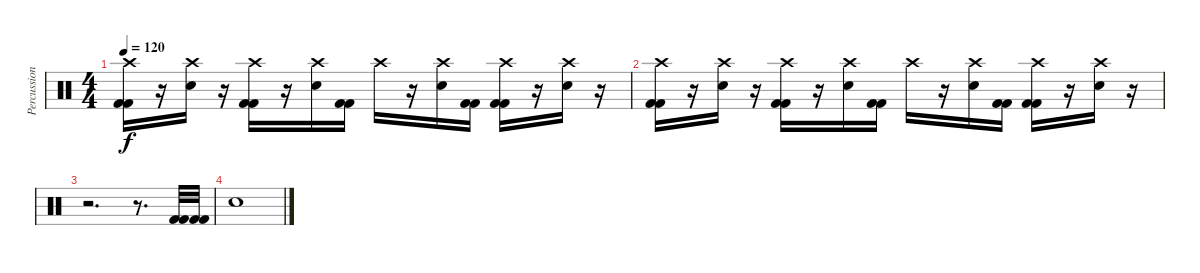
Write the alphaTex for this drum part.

\track ("Percussions" "Percussion") {instrument percussion}
\staff {score}
\articulation defaults
\ts (4 4)
\tempo 120
\clef neutral
\ks c
("Kick (hit) 2" "Kick (hit) 2" "Crash high (hit)").16{dy f} r.16 ("Electric Snare (hit)" "Crash high (hit)").16 r.16 ("Kick (hit) 2" "Kick (hit) 2" "Crash high (hit)").16 r.16 ("Electric Snare (hit)" "Crash high (hit)").16 ("Kick (hit) 2" "Kick (hit) 2").16 "Crash high (hit)".16 r.16 ("Electric Snare (hit)" "Crash high (hit)").16 ("Kick (hit) 2" "Kick (hit) 2").16 ("Kick (hit) 2" "Kick (hit) 2" "Crash high (hit)").16 r.16 ("Electric Snare (hit)" "Crash high (hit)").16 r.16 |
("Kick (hit) 2" "Kick (hit) 2" "Crash high (hit)").16 r.16 ("Electric Snare (hit)" "Crash high (hit)").16 r.16 ("Kick (hit) 2" "Kick (hit) 2" "Crash high (hit)").16 r.16 ("Electric Snare (hit)" "Crash high (hit)").16 ("Kick (hit) 2" "Kick (hit) 2").16 "Crash high (hit)".16 r.16 ("Electric Snare (hit)" "Crash high (hit)").16 ("Kick (hit) 2" "Kick (hit) 2").16 ("Kick (hit) 2" "Kick (hit) 2" "Crash high (hit)").16 r.16 ("Electric Snare (hit)" "Crash high (hit)").16 r.16 |
r.2{d} r.8{d} ("Kick (hit) 2" "Kick (hit) 2").32 ("Kick (hit) 2" "Kick (hit) 2").32 |
"Electric Snare (hit)".1
